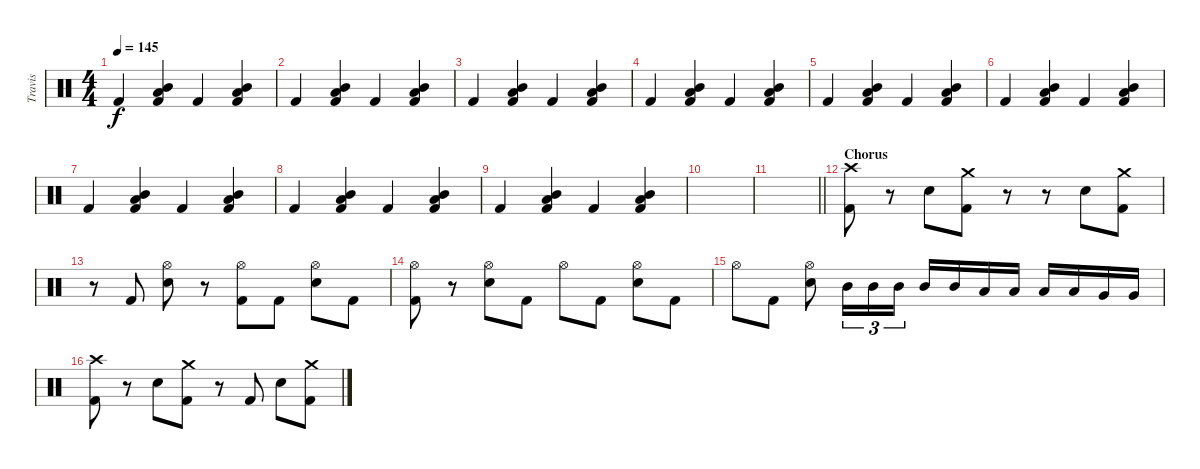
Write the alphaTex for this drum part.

\track ("Travis" "Travis") {instrument percussion}
\staff {score}
\articulation defaults
\ts (4 4)
\tempo 145
\clef neutral
\ks c "Kick (hit) 2".4{dy f}
("Mid Tom (hit)" "Low Floor Tom (hit)" "Kick (hit) 2").4 "Kick (hit) 2".4 ("Mid Tom (hit)" "Low Floor Tom (hit)" "Kick (hit) 2").4 |
"Kick (hit) 2".4 ("Mid Tom (hit)" "Low Floor Tom (hit)" "Kick (hit) 2").4 "Kick (hit) 2".4 ("Mid Tom (hit)" "Low Floor Tom (hit)" "Kick (hit) 2").4 |
"Kick (hit) 2".4 ("Mid Tom (hit)" "Low Floor Tom (hit)" "Kick (hit) 2").4 "Kick (hit) 2".4 ("Mid Tom (hit)" "Low Floor Tom (hit)" "Kick (hit) 2").4 |
"Kick (hit) 2".4 ("Mid Tom (hit)" "Low Floor Tom (hit)" "Kick (hit) 2").4 "Kick (hit) 2".4 ("Mid Tom (hit)" "Low Floor Tom (hit)" "Kick (hit) 2").4 |
"Kick (hit) 2".4 ("Mid Tom (hit)" "Low Floor Tom (hit)" "Kick (hit) 2").4 "Kick (hit) 2".4 ("Mid Tom (hit)" "Low Floor Tom (hit)" "Kick (hit) 2").4 |
"Kick (hit) 2".4 ("Mid Tom (hit)" "Low Floor Tom (hit)" "Kick (hit) 2").4 "Kick (hit) 2".4 ("Mid Tom (hit)" "Low Floor Tom (hit)" "Kick (hit) 2").4 |
"Kick (hit) 2".4 ("Mid Tom (hit)" "Low Floor Tom (hit)" "Kick (hit) 2").4 "Kick (hit) 2".4 ("Mid Tom (hit)" "Low Floor Tom (hit)" "Kick (hit) 2").4 |
"Kick (hit) 2".4 ("Mid Tom (hit)" "Low Floor Tom (hit)" "Kick (hit) 2").4 "Kick (hit) 2".4 ("Mid Tom (hit)" "Low Floor Tom (hit)" "Kick (hit) 2").4 |
"Kick (hit) 2".4 ("Mid Tom (hit)" "Low Floor Tom (hit)" "Kick (hit) 2").4 "Kick (hit) 2".4 ("Mid Tom (hit)" "Low Floor Tom (hit)" "Kick (hit) 2").4 |
|
\barLineRight lightlight
|
\section ("" "Chorus")
("Crash high (hit)" "Kick (hit) 2").8 r.8 "Electric Snare (hit)".8 ("Crash medium (hit)" "Kick (hit) 2").8 r.8 r.8 "Electric Snare (hit)".8 ("Crash medium (hit)" "Kick (hit) 2").8 |
r.8 "Kick (hit) 2".8 ("Hi-Hat (open)" "Electric Snare (hit)").8 r.8 ("Hi-Hat (open)" "Kick (hit) 2").8 "Kick (hit) 2".8 ("Hi-Hat (open)" "Electric Snare (hit)").8 "Kick (hit) 2".8 |
("Hi-Hat (open)" "Kick (hit) 2").8 r.8 ("Hi-Hat (open)" "Electric Snare (hit)").8 "Kick (hit) 2".8 "Hi-Hat (open)".8 "Kick (hit) 2".8 ("Hi-Hat (open)" "Electric Snare (hit)").8 "Kick (hit) 2".8 |
"Hi-Hat (open)".8 "Kick (hit) 2".8 ("Hi-Hat (open)" "Electric Snare (hit)").8 "Mid Tom (hit)".16{tu (3 2)} "Mid Tom (hit)".16{tu (3 2)} "Mid Tom (hit)".16{tu (3 2)} "Mid Tom (hit)".16 "Mid Tom (hit)".16 "Low Tom (hit)".16 "Low Tom (hit)".16 "Low Tom (hit)".16 "Low Tom (hit)".16 "Very Low Tom (hit)".16 "Very Low Tom (hit)".16 |
("Crash high (hit)" "Kick (hit) 2").8 r.8 "Electric Snare (hit)".8 ("Crash medium (hit)" "Kick (hit) 2").8 r.8 "Kick (hit) 2".8 "Electric Snare (hit)".8 ("Crash medium (hit)" "Kick (hit) 2").8
